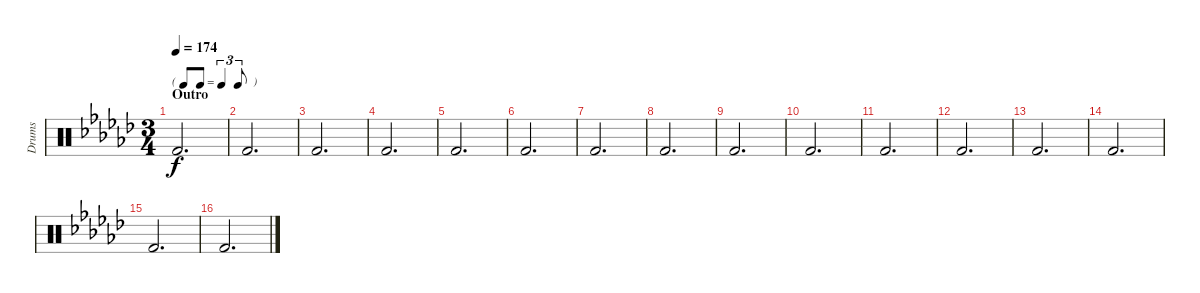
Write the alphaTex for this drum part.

\track ("Drums" "Drums") {instrument percussion}
\staff {score}
\articulation defaults
\ts (3 4)
\tf triplet8th
\section ("" "Outro")
\tempo 174
\clef neutral
\ks ebminor "Kick (hit) 2".2{d dy f}
|
"Kick (hit) 2".2{d} |
"Kick (hit) 2".2{d} |
"Kick (hit) 2".2{d} |
"Kick (hit) 2".2{d} |
"Kick (hit) 2".2{d} |
"Kick (hit) 2".2{d} |
"Kick (hit) 2".2{d} |
"Kick (hit) 2".2{d} |
"Kick (hit) 2".2{d} |
"Kick (hit) 2".2{d} |
"Kick (hit) 2".2{d} |
"Kick (hit) 2".2{d} |
"Kick (hit) 2".2{d} |
"Kick (hit) 2".2{d} |
"Kick (hit) 2".2{d}
